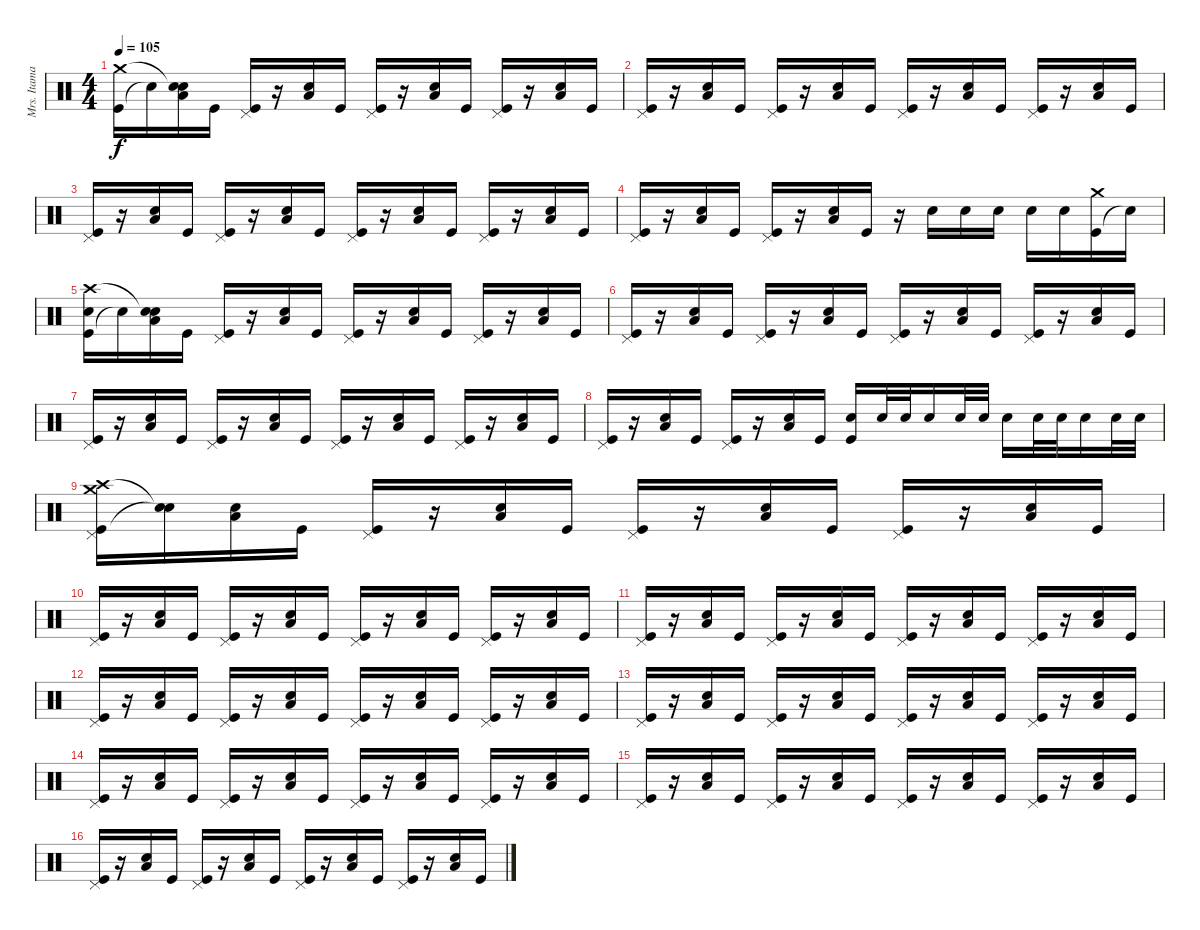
\track ("Mrs. Itamar" "Mrs. Itama") {instrument percussion}
\staff {score}
\articulation defaults
\ts (4 4)
\tempo 105
\clef neutral
\ks c
("Kick (hit)" "Crash medium (hit)").16{dy f} "Snare (hit)"{t}.16 ("Electric Snare (hit)" "Snare (hit)"{t} "Low Tom (hit)").16 "Kick (hit)".16 ("Kick (hit)" "Pedal Hi-Hat (hit)").16 r.16 ("Electric Snare (hit)" "Low Tom (hit)").16 "Kick (hit)".16 ("Kick (hit)" "Pedal Hi-Hat (hit)").16 r.16 ("Electric Snare (hit)" "Low Tom (hit)").16 "Kick (hit)".16 ("Kick (hit)" "Pedal Hi-Hat (hit)").16 r.16 ("Electric Snare (hit)" "Low Tom (hit)").16 "Kick (hit)".16 |
("Kick (hit)" "Pedal Hi-Hat (hit)").16 r.16 ("Electric Snare (hit)" "Low Tom (hit)").16 "Kick (hit)".16 ("Kick (hit)" "Pedal Hi-Hat (hit)").16 r.16 ("Electric Snare (hit)" "Low Tom (hit)").16 "Kick (hit)".16 ("Kick (hit)" "Pedal Hi-Hat (hit)").16 r.16 ("Electric Snare (hit)" "Low Tom (hit)").16 "Kick (hit)".16 ("Kick (hit)" "Pedal Hi-Hat (hit)").16 r.16 ("Electric Snare (hit)" "Low Tom (hit)").16 "Kick (hit)".16 |
("Kick (hit)" "Pedal Hi-Hat (hit)").16 r.16 ("Electric Snare (hit)" "Low Tom (hit)").16 "Kick (hit)".16 ("Kick (hit)" "Pedal Hi-Hat (hit)").16 r.16 ("Electric Snare (hit)" "Low Tom (hit)").16 "Kick (hit)".16 ("Kick (hit)" "Pedal Hi-Hat (hit)").16 r.16 ("Electric Snare (hit)" "Low Tom (hit)").16 "Kick (hit)".16 ("Kick (hit)" "Pedal Hi-Hat (hit)").16 r.16 ("Electric Snare (hit)" "Low Tom (hit)").16 "Kick (hit)".16 |
("Kick (hit)" "Pedal Hi-Hat (hit)").16 r.16 ("Electric Snare (hit)" "Low Tom (hit)").16 "Kick (hit)".16 ("Kick (hit)" "Pedal Hi-Hat (hit)").16 r.16 ("Electric Snare (hit)" "Low Tom (hit)").16 "Kick (hit)".16 r.16 "Electric Snare (hit)".16 "Electric Snare (hit)".16 "Electric Snare (hit)".16 "Electric Snare (hit)".16 "Electric Snare (hit)".16 ("Kick (hit)" "Crash medium (hit)").16 "Snare (hit)"{t}.16 |
("Kick (hit)" "Crash high (hit)" "Snare (hit)").16 "Snare (hit)"{t}.16 ("Electric Snare (hit)" "Snare (hit)"{t} "Low Tom (hit)").16 "Kick (hit)".16 ("Kick (hit)" "Pedal Hi-Hat (hit)").16 r.16 ("Electric Snare (hit)" "Low Tom (hit)").16 "Kick (hit)".16 ("Kick (hit)" "Pedal Hi-Hat (hit)").16 r.16 ("Electric Snare (hit)" "Low Tom (hit)").16 "Kick (hit)".16 ("Kick (hit)" "Pedal Hi-Hat (hit)").16 r.16 ("Electric Snare (hit)" "Low Tom (hit)").16 "Kick (hit)".16 |
("Kick (hit)" "Pedal Hi-Hat (hit)").16 r.16 ("Electric Snare (hit)" "Low Tom (hit)").16 "Kick (hit)".16 ("Kick (hit)" "Pedal Hi-Hat (hit)").16 r.16 ("Electric Snare (hit)" "Low Tom (hit)").16 "Kick (hit)".16 ("Kick (hit)" "Pedal Hi-Hat (hit)").16 r.16 ("Electric Snare (hit)" "Low Tom (hit)").16 "Kick (hit)".16 ("Kick (hit)" "Pedal Hi-Hat (hit)").16 r.16 ("Electric Snare (hit)" "Low Tom (hit)").16 "Kick (hit)".16 |
("Kick (hit)" "Pedal Hi-Hat (hit)").16 r.16 ("Electric Snare (hit)" "Low Tom (hit)").16 "Kick (hit)".16 ("Kick (hit)" "Pedal Hi-Hat (hit)").16 r.16 ("Electric Snare (hit)" "Low Tom (hit)").16 "Kick (hit)".16 ("Kick (hit)" "Pedal Hi-Hat (hit)").16 r.16 ("Electric Snare (hit)" "Low Tom (hit)").16 "Kick (hit)".16 ("Kick (hit)" "Pedal Hi-Hat (hit)").16 r.16 ("Electric Snare (hit)" "Low Tom (hit)").16 "Kick (hit)".16 |
("Kick (hit)" "Pedal Hi-Hat (hit)").16 r.16 ("Electric Snare (hit)" "Low Tom (hit)").16 "Kick (hit)".16 ("Kick (hit)" "Pedal Hi-Hat (hit)").16 r.16 ("Electric Snare (hit)" "Low Tom (hit)").16 "Kick (hit)".16 ("Kick (hit)" "Electric Snare (hit)").16 "Electric Snare (hit)".32 "Electric Snare (hit)".32 "Electric Snare (hit)".16 "Electric Snare (hit)".32 "Electric Snare (hit)".32 "Electric Snare (hit)".16 "Electric Snare (hit)".32 "Electric Snare (hit)".32 "Electric Snare (hit)".16 "Electric Snare (hit)".32 "Electric Snare (hit)".32 |
("Crash high (hit)" "Kick (hit)" "Pedal Hi-Hat (hit)" "Crash medium (hit)").16 ("Snare (hit)"{t} "Snare (hit)"{t}).16 ("Electric Snare (hit)" "Low Tom (hit)").16 "Kick (hit)".16 ("Kick (hit)" "Pedal Hi-Hat (hit)").16 r.16 ("Electric Snare (hit)" "Low Tom (hit)").16 "Kick (hit)".16 ("Kick (hit)" "Pedal Hi-Hat (hit)").16 r.16 ("Electric Snare (hit)" "Low Tom (hit)").16 "Kick (hit)".16 ("Kick (hit)" "Pedal Hi-Hat (hit)").16 r.16 ("Electric Snare (hit)" "Low Tom (hit)").16 "Kick (hit)".16 |
("Kick (hit)" "Pedal Hi-Hat (hit)").16 r.16 ("Electric Snare (hit)" "Low Tom (hit)").16 "Kick (hit)".16 ("Kick (hit)" "Pedal Hi-Hat (hit)").16 r.16 ("Electric Snare (hit)" "Low Tom (hit)").16 "Kick (hit)".16 ("Kick (hit)" "Pedal Hi-Hat (hit)").16 r.16 ("Electric Snare (hit)" "Low Tom (hit)").16 "Kick (hit)".16 ("Kick (hit)" "Pedal Hi-Hat (hit)").16 r.16 ("Electric Snare (hit)" "Low Tom (hit)").16 "Kick (hit)".16 |
("Kick (hit)" "Pedal Hi-Hat (hit)").16 r.16 ("Electric Snare (hit)" "Low Tom (hit)").16 "Kick (hit)".16 ("Kick (hit)" "Pedal Hi-Hat (hit)").16 r.16 ("Electric Snare (hit)" "Low Tom (hit)").16 "Kick (hit)".16 ("Kick (hit)" "Pedal Hi-Hat (hit)").16 r.16 ("Electric Snare (hit)" "Low Tom (hit)").16 "Kick (hit)".16 ("Kick (hit)" "Pedal Hi-Hat (hit)").16 r.16 ("Electric Snare (hit)" "Low Tom (hit)").16 "Kick (hit)".16 |
("Kick (hit)" "Pedal Hi-Hat (hit)").16 r.16 ("Electric Snare (hit)" "Low Tom (hit)").16 "Kick (hit)".16 ("Kick (hit)" "Pedal Hi-Hat (hit)").16 r.16 ("Electric Snare (hit)" "Low Tom (hit)").16 "Kick (hit)".16 ("Kick (hit)" "Pedal Hi-Hat (hit)").16 r.16 ("Electric Snare (hit)" "Low Tom (hit)").16 "Kick (hit)".16 ("Kick (hit)" "Pedal Hi-Hat (hit)").16 r.16 ("Electric Snare (hit)" "Low Tom (hit)").16 "Kick (hit)".16 |
("Kick (hit)" "Pedal Hi-Hat (hit)").16 r.16 ("Electric Snare (hit)" "Low Tom (hit)").16 "Kick (hit)".16 ("Kick (hit)" "Pedal Hi-Hat (hit)").16 r.16 ("Electric Snare (hit)" "Low Tom (hit)").16 "Kick (hit)".16 ("Kick (hit)" "Pedal Hi-Hat (hit)").16 r.16 ("Electric Snare (hit)" "Low Tom (hit)").16 "Kick (hit)".16 ("Kick (hit)" "Pedal Hi-Hat (hit)").16 r.16 ("Electric Snare (hit)" "Low Tom (hit)").16 "Kick (hit)".16 |
("Kick (hit)" "Pedal Hi-Hat (hit)").16 r.16 ("Electric Snare (hit)" "Low Tom (hit)").16 "Kick (hit)".16 ("Kick (hit)" "Pedal Hi-Hat (hit)").16 r.16 ("Electric Snare (hit)" "Low Tom (hit)").16 "Kick (hit)".16 ("Kick (hit)" "Pedal Hi-Hat (hit)").16 r.16 ("Electric Snare (hit)" "Low Tom (hit)").16 "Kick (hit)".16 ("Kick (hit)" "Pedal Hi-Hat (hit)").16 r.16 ("Electric Snare (hit)" "Low Tom (hit)").16 "Kick (hit)".16 |
("Kick (hit)" "Pedal Hi-Hat (hit)").16 r.16 ("Electric Snare (hit)" "Low Tom (hit)").16 "Kick (hit)".16 ("Kick (hit)" "Pedal Hi-Hat (hit)").16 r.16 ("Electric Snare (hit)" "Low Tom (hit)").16 "Kick (hit)".16 ("Kick (hit)" "Pedal Hi-Hat (hit)").16 r.16 ("Electric Snare (hit)" "Low Tom (hit)").16 "Kick (hit)".16 ("Kick (hit)" "Pedal Hi-Hat (hit)").16 r.16 ("Electric Snare (hit)" "Low Tom (hit)").16 "Kick (hit)".16 |
("Kick (hit)" "Pedal Hi-Hat (hit)").16 r.16 ("Electric Snare (hit)" "Low Tom (hit)").16 "Kick (hit)".16 ("Kick (hit)" "Pedal Hi-Hat (hit)").16 r.16 ("Electric Snare (hit)" "Low Tom (hit)").16 "Kick (hit)".16 ("Kick (hit)" "Pedal Hi-Hat (hit)").16 r.16 ("Electric Snare (hit)" "Low Tom (hit)").16 "Kick (hit)".16 ("Kick (hit)" "Pedal Hi-Hat (hit)").16 r.16 ("Electric Snare (hit)" "Low Tom (hit)").16 "Kick (hit)".16
